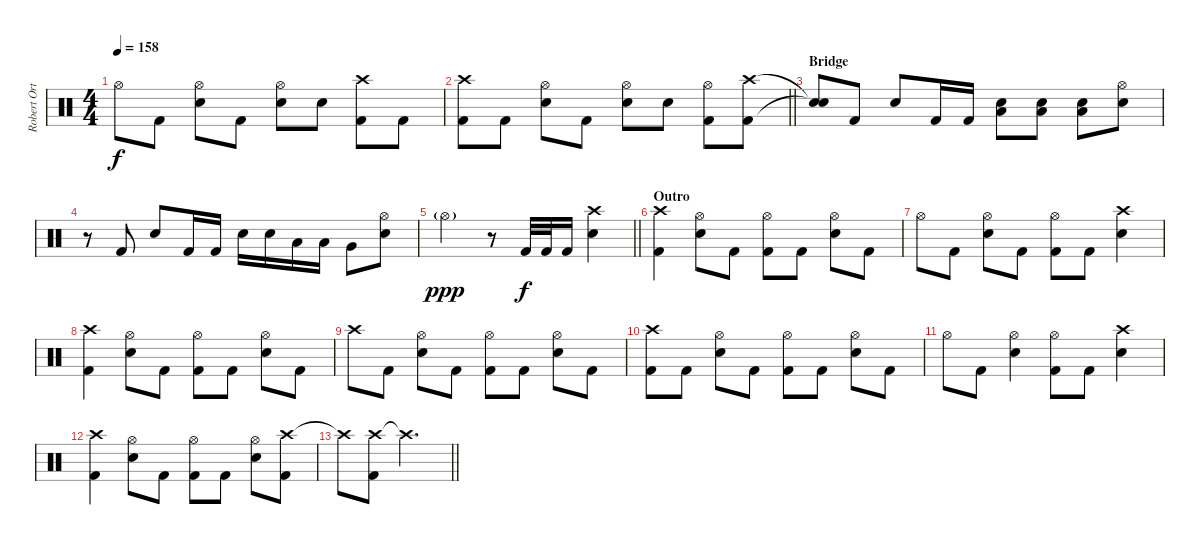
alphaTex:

\track ("Robert Ortiz [Drums]" "Robert Ort") {instrument percussion}
\staff {score}
\articulation defaults
\ts (4 4)
\tempo 158
\clef neutral
\ks c "Hi-Hat (open)".8{dy f} "Kick (hit) 2".8
("Hi-Hat (open)" "Electric Snare (hit)").8 "Kick (hit) 2".8 ("Hi-Hat (open)" "Electric Snare (hit)").8 "Electric Snare (hit)".8 ("Crash high (hit)" "Kick (hit) 2").8 "Kick (hit) 2".8 |
\barLineRight lightlight
("Crash high (hit)" "Kick (hit) 2").8 "Kick (hit) 2".8 ("Hi-Hat (open)" "Electric Snare (hit)").8 "Kick (hit) 2".8 ("Hi-Hat (open)" "Electric Snare (hit)").8 "Electric Snare (hit)".8 ("Hi-Hat (open)" "Kick (hit) 2").8 ("Crash high (hit)" "Kick (hit) 2").8 |
\section ("" "Bridge")
("Snare (hit)"{t} "Snare (hit)"{t}).8 "Kick (hit) 2".8 "Electric Snare (hit)".8 "Kick (hit) 2".16 "Kick (hit) 2".16 ("Electric Snare (hit)" "Low Floor Tom (hit)").8 ("Electric Snare (hit)" "Low Floor Tom (hit)").8 ("Electric Snare (hit)" "Low Floor Tom (hit)").8 ("Hi-Hat (open)" "Electric Snare (hit)").8 |
r.8 "Kick (hit) 2".8 "Electric Snare (hit)".8 "Kick (hit) 2".16 "Kick (hit) 2".16 "Electric Snare (hit)".16 "Electric Snare (hit)".16 "Low Tom (hit)".16 "Low Tom (hit)".16 "Very Low Tom (hit)".8 ("Hi-Hat (open)" "Electric Snare (hit)").8 |
\barLineRight lightlight "Hi-Hat (open)"{g}.2{dy ppp}
r.8 "Kick (hit) 2".32{dy f} "Kick (hit) 2".32 "Kick (hit) 2".16 ("Crash high (hit)" "Electric Snare (hit)").4 |
\section ("" "Outro")
("Crash high (hit)" "Kick (hit) 2").4 ("Hi-Hat (open)" "Electric Snare (hit)").8 "Kick (hit) 2".8 ("Hi-Hat (open)" "Kick (hit) 2").8 "Kick (hit) 2".8 ("Hi-Hat (open)" "Electric Snare (hit)").8 "Kick (hit) 2".8 |
"Hi-Hat (open)".8 "Kick (hit) 2".8 ("Hi-Hat (open)" "Electric Snare (hit)").8 "Kick (hit) 2".8 ("Hi-Hat (open)" "Kick (hit) 2").8 "Kick (hit) 2".8 ("Crash high (hit)" "Electric Snare (hit)").4 |
("Crash high (hit)" "Kick (hit) 2").4 ("Hi-Hat (open)" "Electric Snare (hit)").8 "Kick (hit) 2".8 ("Hi-Hat (open)" "Kick (hit) 2").8 "Kick (hit) 2".8 ("Hi-Hat (open)" "Electric Snare (hit)").8 "Kick (hit) 2".8 |
"Crash high (hit)".8 "Kick (hit) 2".8 ("Hi-Hat (open)" "Electric Snare (hit)").8 "Kick (hit) 2".8 ("Hi-Hat (open)" "Kick (hit) 2").8 "Kick (hit) 2".8 ("Hi-Hat (open)" "Electric Snare (hit)").8 "Kick (hit) 2".8 |
("Crash high (hit)" "Kick (hit) 2").8 "Kick (hit) 2".8 ("Hi-Hat (open)" "Electric Snare (hit)").8 "Kick (hit) 2".8 ("Hi-Hat (open)" "Kick (hit) 2").8 "Kick (hit) 2".8 ("Hi-Hat (open)" "Electric Snare (hit)").8 "Kick (hit) 2".8 |
"Hi-Hat (open)".8 "Kick (hit) 2".8 ("Hi-Hat (open)" "Electric Snare (hit)").4 ("Hi-Hat (open)" "Kick (hit) 2").8 "Kick (hit) 2".8 ("Crash high (hit)" "Electric Snare (hit)").4 |
("Crash high (hit)" "Kick (hit) 2").4 ("Hi-Hat (open)" "Electric Snare (hit)").8 "Kick (hit) 2".8 ("Hi-Hat (open)" "Kick (hit) 2").8 "Kick (hit) 2".8 ("Hi-Hat (open)" "Electric Snare (hit)").8 ("Crash high (hit)" "Kick (hit) 2").8 |
\barLineRight lightlight "Crash high (hit)"{t}.8
("Crash high (hit)" "Kick (hit) 2").8 "Crash high (hit)"{t}.2{d}
